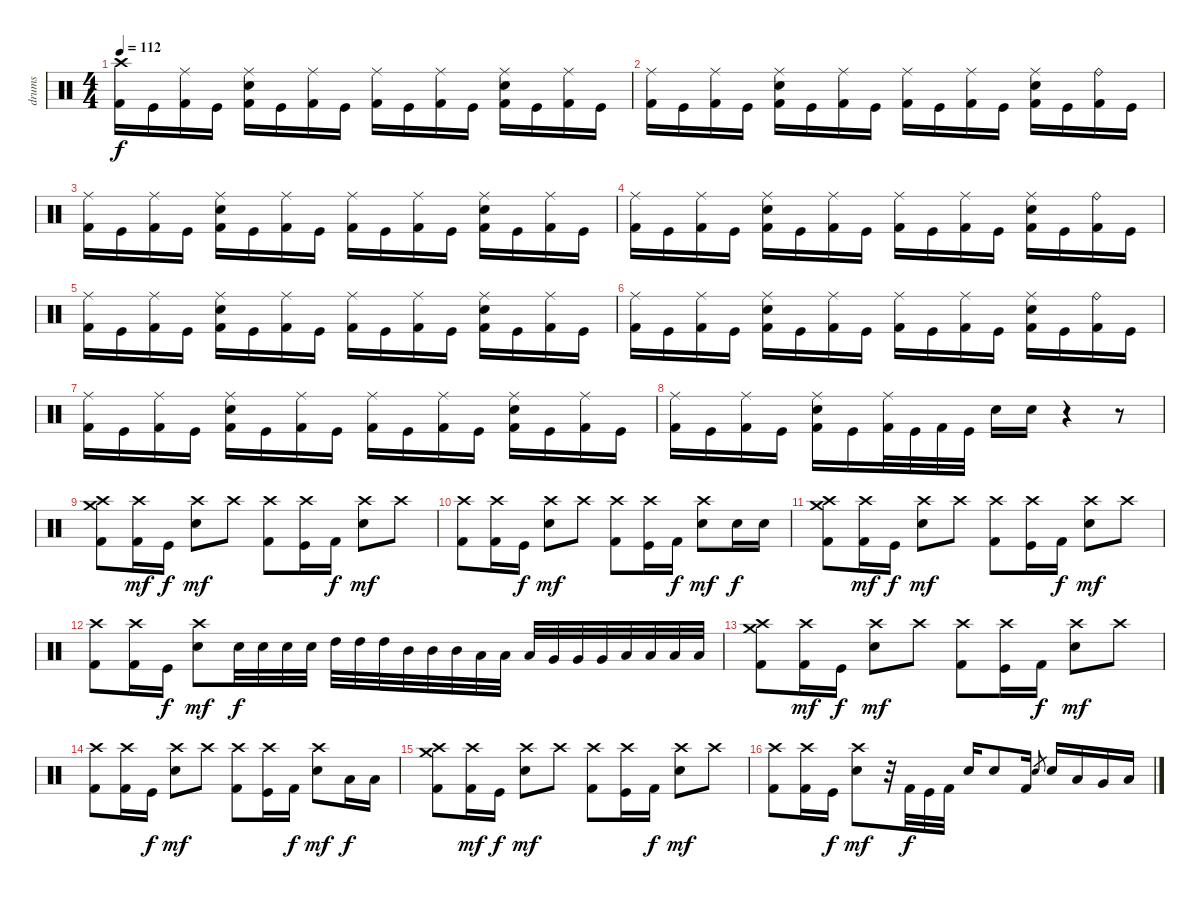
\track ("drums" "drums") {instrument percussion}
\staff {score}
\articulation defaults
\ts (4 4)
\tempo 112
\clef neutral
\ks c
("Crash high (hit)" "Kick (hit) 2").16{dy f} "Kick (hit)".16 ("Ride (middle)" "Kick (hit) 2").16 "Kick (hit)".16 ("Ride (middle)" "Electric Snare (hit)" "Kick (hit) 2").16 "Kick (hit)".16 ("Ride (middle)" "Kick (hit) 2").16 "Kick (hit)".16 ("Ride (middle)" "Kick (hit) 2").16 "Kick (hit)".16 ("Ride (middle)" "Kick (hit) 2").16 "Kick (hit)".16 ("Ride (middle)" "Electric Snare (hit)" "Kick (hit) 2").16 "Kick (hit)".16 ("Ride (middle)" "Kick (hit) 2").16 "Kick (hit)".16 |
("Ride (middle)" "Kick (hit) 2").16 "Kick (hit)".16 ("Ride (middle)" "Kick (hit) 2").16 "Kick (hit)".16 ("Ride (middle)" "Electric Snare (hit)" "Kick (hit) 2").16 "Kick (hit)".16 ("Ride (middle)" "Kick (hit) 2").16 "Kick (hit)".16 ("Ride (middle)" "Kick (hit) 2").16 "Kick (hit)".16 ("Ride (middle)" "Kick (hit) 2").16 "Kick (hit)".16 ("Ride (middle)" "Electric Snare (hit)" "Kick (hit) 2").16 "Kick (hit)".16 ("Ride (bell)" "Kick (hit) 2").16 "Kick (hit)".16 |
("Ride (middle)" "Kick (hit) 2").16 "Kick (hit)".16 ("Ride (middle)" "Kick (hit) 2").16 "Kick (hit)".16 ("Ride (middle)" "Electric Snare (hit)" "Kick (hit) 2").16 "Kick (hit)".16 ("Ride (middle)" "Kick (hit) 2").16 "Kick (hit)".16 ("Ride (middle)" "Kick (hit) 2").16 "Kick (hit)".16 ("Ride (middle)" "Kick (hit) 2").16 "Kick (hit)".16 ("Ride (middle)" "Electric Snare (hit)" "Kick (hit) 2").16 "Kick (hit)".16 ("Ride (middle)" "Kick (hit) 2").16 "Kick (hit)".16 |
("Ride (middle)" "Kick (hit) 2").16 "Kick (hit)".16 ("Ride (middle)" "Kick (hit) 2").16 "Kick (hit)".16 ("Ride (middle)" "Electric Snare (hit)" "Kick (hit) 2").16 "Kick (hit)".16 ("Ride (middle)" "Kick (hit) 2").16 "Kick (hit)".16 ("Ride (middle)" "Kick (hit) 2").16 "Kick (hit)".16 ("Ride (middle)" "Kick (hit) 2").16 "Kick (hit)".16 ("Ride (middle)" "Electric Snare (hit)" "Kick (hit) 2").16 "Kick (hit)".16 ("Ride (bell)" "Kick (hit) 2").16 "Kick (hit)".16 |
("Ride (middle)" "Kick (hit) 2").16 "Kick (hit)".16 ("Ride (middle)" "Kick (hit) 2").16 "Kick (hit)".16 ("Ride (middle)" "Electric Snare (hit)" "Kick (hit) 2").16 "Kick (hit)".16 ("Ride (middle)" "Kick (hit) 2").16 "Kick (hit)".16 ("Ride (middle)" "Kick (hit) 2").16 "Kick (hit)".16 ("Ride (middle)" "Kick (hit) 2").16 "Kick (hit)".16 ("Ride (middle)" "Electric Snare (hit)" "Kick (hit) 2").16 "Kick (hit)".16 ("Ride (middle)" "Kick (hit) 2").16 "Kick (hit)".16 |
("Ride (middle)" "Kick (hit) 2").16 "Kick (hit)".16 ("Ride (middle)" "Kick (hit) 2").16 "Kick (hit)".16 ("Ride (middle)" "Electric Snare (hit)" "Kick (hit) 2").16 "Kick (hit)".16 ("Ride (middle)" "Kick (hit) 2").16 "Kick (hit)".16 ("Ride (middle)" "Kick (hit) 2").16 "Kick (hit)".16 ("Ride (middle)" "Kick (hit) 2").16 "Kick (hit)".16 ("Ride (middle)" "Electric Snare (hit)" "Kick (hit) 2").16 "Kick (hit)".16 ("Ride (bell)" "Kick (hit) 2").16 "Kick (hit)".16 |
("Ride (middle)" "Kick (hit) 2").16 "Kick (hit)".16 ("Ride (middle)" "Kick (hit) 2").16 "Kick (hit)".16 ("Ride (middle)" "Electric Snare (hit)" "Kick (hit) 2").16 "Kick (hit)".16 ("Ride (middle)" "Kick (hit) 2").16 "Kick (hit)".16 ("Ride (middle)" "Kick (hit) 2").16 "Kick (hit)".16 ("Ride (middle)" "Kick (hit) 2").16 "Kick (hit)".16 ("Ride (middle)" "Electric Snare (hit)" "Kick (hit) 2").16 "Kick (hit)".16 ("Ride (middle)" "Kick (hit) 2").16 "Kick (hit)".16 |
("Ride (middle)" "Kick (hit) 2").16 "Kick (hit)".16 ("Ride (middle)" "Kick (hit) 2").16 "Kick (hit)".16 ("Ride (middle)" "Electric Snare (hit)" "Kick (hit) 2").16 "Kick (hit)".16 ("Ride (middle)" "Kick (hit) 2").32 "Kick (hit)".32 "Kick (hit) 2".32 "Kick (hit)".32 "Electric Snare (hit)".16 "Electric Snare (hit)".16 r.4 r.8 |
("Crash medium (hit)" "Crash high (hit)" "Kick (hit) 2").8 ("Crash high (hit)" "Kick (hit) 2").16{dy mf} "Kick (hit)".16{dy f} ("Crash high (hit)" "Electric Snare (hit)").8{dy mf} "Crash high (hit)".8 ("Crash high (hit)" "Kick (hit) 2").8 ("Crash high (hit)" "Kick (hit)").16 "Kick (hit) 2".16{dy f} ("Crash high (hit)" "Electric Snare (hit)").8{dy mf} "Crash high (hit)".8 |
("Crash high (hit)" "Kick (hit) 2").8 ("Crash high (hit)" "Kick (hit) 2").16 "Kick (hit)".16{dy f} ("Crash high (hit)" "Electric Snare (hit)").8{dy mf} "Crash high (hit)".8 ("Crash high (hit)" "Kick (hit) 2").8 ("Crash high (hit)" "Kick (hit)").16 "Kick (hit) 2".16{dy f} ("Crash high (hit)" "Electric Snare (hit)").8{dy mf} "Electric Snare (hit)".16{dy f} "Electric Snare (hit)".16 |
("Crash medium (hit)" "Crash high (hit)" "Kick (hit) 2").8 ("Crash high (hit)" "Kick (hit) 2").16{dy mf} "Kick (hit)".16{dy f} ("Crash high (hit)" "Electric Snare (hit)").8{dy mf} "Crash high (hit)".8 ("Crash high (hit)" "Kick (hit) 2").8 ("Crash high (hit)" "Kick (hit)").16 "Kick (hit) 2".16{dy f} ("Crash high (hit)" "Electric Snare (hit)").8{dy mf} "Crash high (hit)".8 |
("Crash high (hit)" "Kick (hit) 2").8 ("Crash high (hit)" "Kick (hit) 2").16 "Kick (hit)".16{dy f} ("Crash high (hit)" "Electric Snare (hit)").8{dy mf} "Electric Snare (hit)".32{dy f} "Electric Snare (hit)".32 "Electric Snare (hit)".32 "Electric Snare (hit)".32 "High Tom (hit)".32 "High Tom (hit)".32 "High Tom (hit)".32 "Mid Tom (hit)".32 "Mid Tom (hit)".32 "Mid Tom (hit)".32 "Low Tom (hit)".32 "Low Tom (hit)".32 "Low Tom (hit)".32 "Very Low Tom (hit)".32 "Very Low Tom (hit)".32 "Very Low Tom (hit)".32 "Low Floor Tom (hit)".32 "Low Floor Tom (hit)".32 "Low Floor Tom (hit)".32 "Low Floor Tom (hit)".32 |
("Crash medium (hit)" "Crash high (hit)" "Kick (hit) 2").8 ("Crash high (hit)" "Kick (hit) 2").16{dy mf} "Kick (hit)".16{dy f} ("Crash high (hit)" "Electric Snare (hit)").8{dy mf} "Crash high (hit)".8 ("Crash high (hit)" "Kick (hit) 2").8 ("Crash high (hit)" "Kick (hit)").16 "Kick (hit) 2".16{dy f} ("Crash high (hit)" "Electric Snare (hit)").8{dy mf} "Crash high (hit)".8 |
("Crash high (hit)" "Kick (hit) 2").8 ("Crash high (hit)" "Kick (hit) 2").16 "Kick (hit)".16{dy f} ("Crash high (hit)" "Electric Snare (hit)").8{dy mf} "Crash high (hit)".8 ("Crash high (hit)" "Kick (hit) 2").8 ("Crash high (hit)" "Kick (hit)").16 "Kick (hit) 2".16{dy f} ("Crash high (hit)" "Electric Snare (hit)").8{dy mf} "Low Floor Tom (hit)".16{dy f} "Low Floor Tom (hit)".16 |
("Crash medium (hit)" "Crash high (hit)" "Kick (hit) 2").8 ("Crash high (hit)" "Kick (hit) 2").16{dy mf} "Kick (hit)".16{dy f} ("Crash high (hit)" "Electric Snare (hit)").8{dy mf} "Crash high (hit)".8 ("Crash high (hit)" "Kick (hit) 2").8 ("Crash high (hit)" "Kick (hit)").16 "Kick (hit) 2".16{dy f} ("Crash high (hit)" "Electric Snare (hit)").8{dy mf} "Crash high (hit)".8 |
("Crash high (hit)" "Kick (hit) 2").8 ("Crash high (hit)" "Kick (hit) 2").16 "Kick (hit)".16{dy f} ("Crash high (hit)" "Electric Snare (hit)").8{dy mf} r.32 "Kick (hit) 2".32{dy f} "Kick (hit)".32 "Kick (hit) 2".32 "Electric Snare (hit)".16 "Electric Snare (hit)".8 "Kick (hit) 2".16 "Electric Snare (hit)".8{gr} "Electric Snare (hit)".16 "Low Tom (hit)".16 "Very Low Tom (hit)".16 "Low Floor Tom (hit)".16
